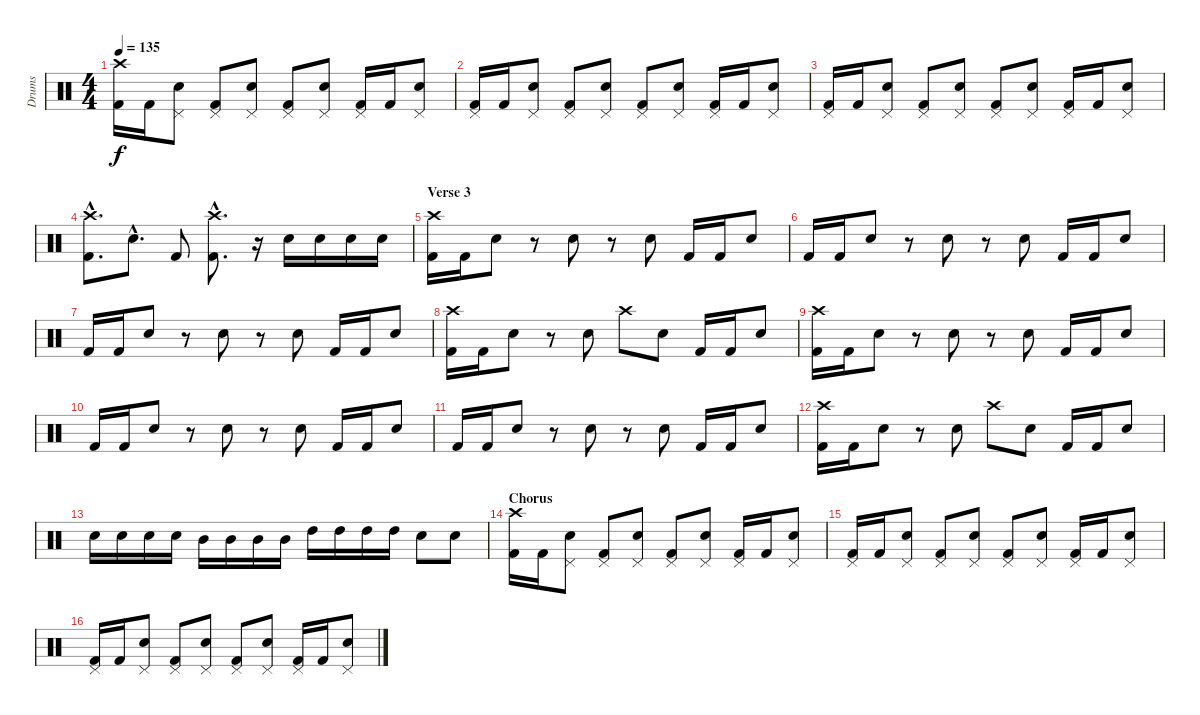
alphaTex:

\track ("Drums" "Drums") {instrument percussion}
\staff {score}
\articulation defaults
\ts (4 4)
\tempo 135
\clef neutral
\ks c
("Crash high (hit)" "Kick (hit) 2").16{dy f} "Kick (hit) 2".16 ("Pedal Hi-Hat (hit)" "Snare (hit) 2").8 ("Pedal Hi-Hat (hit)" "Kick (hit) 2").8 ("Pedal Hi-Hat (hit)" "Snare (hit) 2").8 ("Pedal Hi-Hat (hit)" "Kick (hit) 2").8 ("Pedal Hi-Hat (hit)" "Snare (hit) 2").8 ("Pedal Hi-Hat (hit)" "Kick (hit) 2").16 "Kick (hit) 2".16 ("Pedal Hi-Hat (hit)" "Snare (hit) 2").8 |
("Pedal Hi-Hat (hit)" "Kick (hit) 2").16 "Kick (hit) 2".16 ("Pedal Hi-Hat (hit)" "Snare (hit) 2").8 ("Pedal Hi-Hat (hit)" "Kick (hit) 2").8 ("Pedal Hi-Hat (hit)" "Snare (hit) 2").8 ("Pedal Hi-Hat (hit)" "Kick (hit) 2").8 ("Pedal Hi-Hat (hit)" "Snare (hit) 2").8 ("Pedal Hi-Hat (hit)" "Kick (hit) 2").16 "Kick (hit) 2".16 ("Pedal Hi-Hat (hit)" "Snare (hit) 2").8 |
("Pedal Hi-Hat (hit)" "Kick (hit) 2").16 "Kick (hit) 2".16 ("Pedal Hi-Hat (hit)" "Snare (hit) 2").8 ("Pedal Hi-Hat (hit)" "Kick (hit) 2").8 ("Pedal Hi-Hat (hit)" "Snare (hit) 2").8 ("Pedal Hi-Hat (hit)" "Kick (hit) 2").8 ("Pedal Hi-Hat (hit)" "Snare (hit) 2").8 ("Pedal Hi-Hat (hit)" "Kick (hit) 2").16 "Kick (hit) 2".16 ("Pedal Hi-Hat (hit)" "Snare (hit) 2").8 |
("Crash high (hit)"{hac} "Kick (hit) 2"{hac}).8{d} "Snare (hit) 2"{hac}.8{d} "Kick (hit) 2".8 ("Crash high (hit)"{hac} "Kick (hit) 2"{hac}).8{d} r.16 "Snare (hit) 2".16 "Snare (hit) 2".16 "Snare (hit) 2".16 "Snare (hit) 2".16 |
\section ("" "Verse 3")
("Crash high (hit)" "Kick (hit) 2").16 "Kick (hit) 2".16 "Snare (hit) 2".8 r.8 "Snare (hit) 2".8 r.8 "Snare (hit) 2".8 "Kick (hit) 2".16 "Kick (hit) 2".16 "Snare (hit) 2".8 |
"Kick (hit) 2".16 "Kick (hit) 2".16 "Snare (hit) 2".8 r.8 "Snare (hit) 2".8 r.8 "Snare (hit) 2".8 "Kick (hit) 2".16 "Kick (hit) 2".16 "Snare (hit) 2".8 |
"Kick (hit) 2".16 "Kick (hit) 2".16 "Snare (hit) 2".8 r.8 "Snare (hit) 2".8 r.8 "Snare (hit) 2".8 "Kick (hit) 2".16 "Kick (hit) 2".16 "Snare (hit) 2".8 |
("Crash high (hit)" "Kick (hit) 2").16 "Kick (hit) 2".16 "Snare (hit) 2".8 r.8 "Snare (hit) 2".8 "Crash high (hit)".8 "Snare (hit) 2".8 "Kick (hit) 2".16 "Kick (hit) 2".16 "Snare (hit) 2".8 |
("Crash high (hit)" "Kick (hit) 2").16 "Kick (hit) 2".16 "Snare (hit) 2".8 r.8 "Snare (hit) 2".8 r.8 "Snare (hit) 2".8 "Kick (hit) 2".16 "Kick (hit) 2".16 "Snare (hit) 2".8 |
"Kick (hit) 2".16 "Kick (hit) 2".16 "Snare (hit) 2".8 r.8 "Snare (hit) 2".8 r.8 "Snare (hit) 2".8 "Kick (hit) 2".16 "Kick (hit) 2".16 "Snare (hit) 2".8 |
"Kick (hit) 2".16 "Kick (hit) 2".16 "Snare (hit) 2".8 r.8 "Snare (hit) 2".8 r.8 "Snare (hit) 2".8 "Kick (hit) 2".16 "Kick (hit) 2".16 "Snare (hit) 2".8 |
("Crash high (hit)" "Kick (hit) 2").16 "Kick (hit) 2".16 "Snare (hit) 2".8 r.8 "Snare (hit) 2".8 "Crash high (hit)".8 "Snare (hit) 2".8 "Kick (hit) 2".16 "Kick (hit) 2".16 "Snare (hit) 2".8 |
"Snare (hit) 2".16 "Snare (hit) 2".16 "Snare (hit) 2".16 "Snare (hit) 2".16 "Mid Tom (hit)".16 "Mid Tom (hit)".16 "Mid Tom (hit)".16 "Mid Tom (hit)".16 "High Tom (hit)".16 "High Tom (hit)".16 "High Tom (hit)".16 "High Tom (hit)".16 "Snare (hit) 2".8 "Snare (hit) 2".8 |
\section ("" "Chorus")
("Crash high (hit)" "Kick (hit) 2").16 "Kick (hit) 2".16 ("Pedal Hi-Hat (hit)" "Snare (hit) 2").8 ("Pedal Hi-Hat (hit)" "Kick (hit) 2").8 ("Pedal Hi-Hat (hit)" "Snare (hit) 2").8 ("Pedal Hi-Hat (hit)" "Kick (hit) 2").8 ("Pedal Hi-Hat (hit)" "Snare (hit) 2").8 ("Pedal Hi-Hat (hit)" "Kick (hit) 2").16 "Kick (hit) 2".16 ("Pedal Hi-Hat (hit)" "Snare (hit) 2").8 |
("Pedal Hi-Hat (hit)" "Kick (hit) 2").16 "Kick (hit) 2".16 ("Pedal Hi-Hat (hit)" "Snare (hit) 2").8 ("Pedal Hi-Hat (hit)" "Kick (hit) 2").8 ("Pedal Hi-Hat (hit)" "Snare (hit) 2").8 ("Pedal Hi-Hat (hit)" "Kick (hit) 2").8 ("Pedal Hi-Hat (hit)" "Snare (hit) 2").8 ("Pedal Hi-Hat (hit)" "Kick (hit) 2").16 "Kick (hit) 2".16 ("Pedal Hi-Hat (hit)" "Snare (hit) 2").8 |
("Pedal Hi-Hat (hit)" "Kick (hit) 2").16 "Kick (hit) 2".16 ("Pedal Hi-Hat (hit)" "Snare (hit) 2").8 ("Pedal Hi-Hat (hit)" "Kick (hit) 2").8 ("Pedal Hi-Hat (hit)" "Snare (hit) 2").8 ("Pedal Hi-Hat (hit)" "Kick (hit) 2").8 ("Pedal Hi-Hat (hit)" "Snare (hit) 2").8 ("Pedal Hi-Hat (hit)" "Kick (hit) 2").16 "Kick (hit) 2".16 ("Pedal Hi-Hat (hit)" "Snare (hit) 2").8
